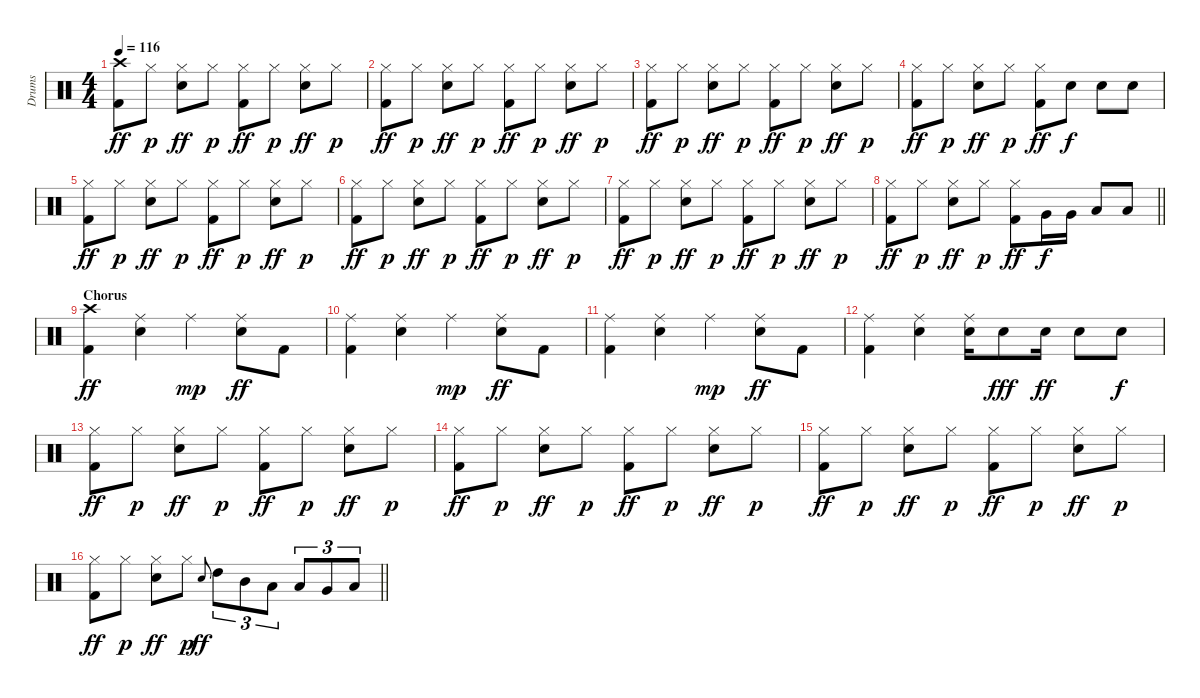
\track ("Drums" "Drums") {instrument percussion}
\staff {score}
\articulation defaults
\ts (4 4)
\tempo 116
\clef neutral
\ks c
("Crash high (hit)" "Kick (hit) 2").8{dy ff} "Hi-Hat (closed)".8{dy p} ("Hi-Hat (closed)" "Snare (hit) 2").8{dy ff} "Hi-Hat (closed)".8{dy p} ("Hi-Hat (closed)" "Kick (hit) 2").8{dy ff} "Hi-Hat (closed)".8{dy p} ("Hi-Hat (closed)" "Snare (hit) 2").8{dy ff} "Hi-Hat (closed)".8{dy p} |
("Hi-Hat (closed)" "Kick (hit) 2").8{dy ff} "Hi-Hat (closed)".8{dy p} ("Hi-Hat (closed)" "Snare (hit) 2").8{dy ff} "Hi-Hat (closed)".8{dy p} ("Hi-Hat (closed)" "Kick (hit) 2").8{dy ff} "Hi-Hat (closed)".8{dy p} ("Hi-Hat (closed)" "Snare (hit) 2").8{dy ff} "Hi-Hat (closed)".8{dy p} |
("Hi-Hat (closed)" "Kick (hit) 2").8{dy ff} "Hi-Hat (closed)".8{dy p} ("Hi-Hat (closed)" "Snare (hit) 2").8{dy ff} "Hi-Hat (closed)".8{dy p} ("Hi-Hat (closed)" "Kick (hit) 2").8{dy ff} "Hi-Hat (closed)".8{dy p} ("Hi-Hat (closed)" "Snare (hit) 2").8{dy ff} "Hi-Hat (closed)".8{dy p} |
("Hi-Hat (closed)" "Kick (hit) 2").8{dy ff} "Hi-Hat (closed)".8{dy p} ("Hi-Hat (closed)" "Snare (hit) 2").8{dy ff} "Hi-Hat (closed)".8{dy p} ("Hi-Hat (closed)" "Kick (hit) 2").8{dy ff} "Snare (hit) 2".8{dy f} "Snare (hit) 2".8 "Snare (hit) 2".8 |
("Hi-Hat (closed)" "Kick (hit) 2").8{dy ff} "Hi-Hat (closed)".8{dy p} ("Hi-Hat (closed)" "Snare (hit) 2").8{dy ff} "Hi-Hat (closed)".8{dy p} ("Hi-Hat (closed)" "Kick (hit) 2").8{dy ff} "Hi-Hat (closed)".8{dy p} ("Hi-Hat (closed)" "Snare (hit) 2").8{dy ff} "Hi-Hat (closed)".8{dy p} |
("Hi-Hat (closed)" "Kick (hit) 2").8{dy ff} "Hi-Hat (closed)".8{dy p} ("Hi-Hat (closed)" "Snare (hit) 2").8{dy ff} "Hi-Hat (closed)".8{dy p} ("Hi-Hat (closed)" "Kick (hit) 2").8{dy ff} "Hi-Hat (closed)".8{dy p} ("Hi-Hat (closed)" "Snare (hit) 2").8{dy ff} "Hi-Hat (closed)".8{dy p} |
("Hi-Hat (closed)" "Kick (hit) 2").8{dy ff} "Hi-Hat (closed)".8{dy p} ("Hi-Hat (closed)" "Snare (hit) 2").8{dy ff} "Hi-Hat (closed)".8{dy p} ("Hi-Hat (closed)" "Kick (hit) 2").8{dy ff} "Hi-Hat (closed)".8{dy p} ("Hi-Hat (closed)" "Snare (hit) 2").8{dy ff} "Hi-Hat (closed)".8{dy p} |
\barLineRight lightlight
("Hi-Hat (closed)" "Kick (hit) 2").8{dy ff} "Hi-Hat (closed)".8{dy p} ("Hi-Hat (closed)" "Snare (hit) 2").8{dy ff} "Hi-Hat (closed)".8{dy p} ("Hi-Hat (closed)" "Kick (hit) 2").8{dy ff} "Very Low Tom (hit)".16{dy f} "Very Low Tom (hit)".16 "Low Floor Tom (hit)".8 "Low Floor Tom (hit)".8 |
\section ("" "Chorus")
("Crash high (hit)" "Kick (hit) 2").4{dy ff} ("Ride (middle)" "Snare (hit) 2").4 "Ride (middle)".4{dy mp} ("Ride (middle)" "Snare (hit) 2").8{dy ff} "Kick (hit) 2".8 |
("Ride (middle)" "Kick (hit) 2").4 ("Ride (middle)" "Snare (hit) 2").4 "Ride (middle)".4{dy mp} ("Ride (middle)" "Snare (hit) 2").8{dy ff} "Kick (hit) 2".8 |
("Ride (middle)" "Kick (hit) 2").4 ("Ride (middle)" "Snare (hit) 2").4 "Ride (middle)".4{dy mp} ("Ride (middle)" "Snare (hit) 2").8{dy ff} "Kick (hit) 2".8 |
("Ride (middle)" "Kick (hit) 2").4 ("Ride (middle)" "Snare (hit) 2").4 ("Ride (middle)" "Snare (hit) 2").16 "Snare (hit) 2".8{dy fff} "Snare (hit) 2".16{dy ff} "Snare (hit) 2".8 "Snare (hit) 2".8{dy f} |
("Hi-Hat (closed)" "Kick (hit) 2").8{dy ff} "Hi-Hat (closed)".8{dy p} ("Hi-Hat (closed)" "Snare (hit) 2").8{dy ff} "Hi-Hat (closed)".8{dy p} ("Hi-Hat (closed)" "Kick (hit) 2").8{dy ff} "Hi-Hat (closed)".8{dy p} ("Hi-Hat (closed)" "Snare (hit) 2").8{dy ff} "Hi-Hat (closed)".8{dy p} |
("Hi-Hat (closed)" "Kick (hit) 2").8{dy ff} "Hi-Hat (closed)".8{dy p} ("Hi-Hat (closed)" "Snare (hit) 2").8{dy ff} "Hi-Hat (closed)".8{dy p} ("Hi-Hat (closed)" "Kick (hit) 2").8{dy ff} "Hi-Hat (closed)".8{dy p} ("Hi-Hat (closed)" "Snare (hit) 2").8{dy ff} "Hi-Hat (closed)".8{dy p} |
("Hi-Hat (closed)" "Kick (hit) 2").8{dy ff} "Hi-Hat (closed)".8{dy p} ("Hi-Hat (closed)" "Snare (hit) 2").8{dy ff} "Hi-Hat (closed)".8{dy p} ("Hi-Hat (closed)" "Kick (hit) 2").8{dy ff} "Hi-Hat (closed)".8{dy p} ("Hi-Hat (closed)" "Snare (hit) 2").8{dy ff} "Hi-Hat (closed)".8{dy p} |
\barLineRight lightlight
("Hi-Hat (closed)" "Kick (hit) 2").8{dy ff} "Hi-Hat (closed)".8{dy p} ("Hi-Hat (closed)" "Snare (hit) 2").8{dy ff} "Hi-Hat (closed)".8{dy p} "Snare (hit) 2".8{gr onbeat dy ff} "High Tom (hit)".8{tu (3 2)} "Mid Tom (hit)".8{tu (3 2)} "Low Tom (hit)".8{tu (3 2)} "Low Tom (hit)".8{tu (3 2)} "Very Low Tom (hit)".8{tu (3 2)} "Low Floor Tom (hit)".8{tu (3 2)}
